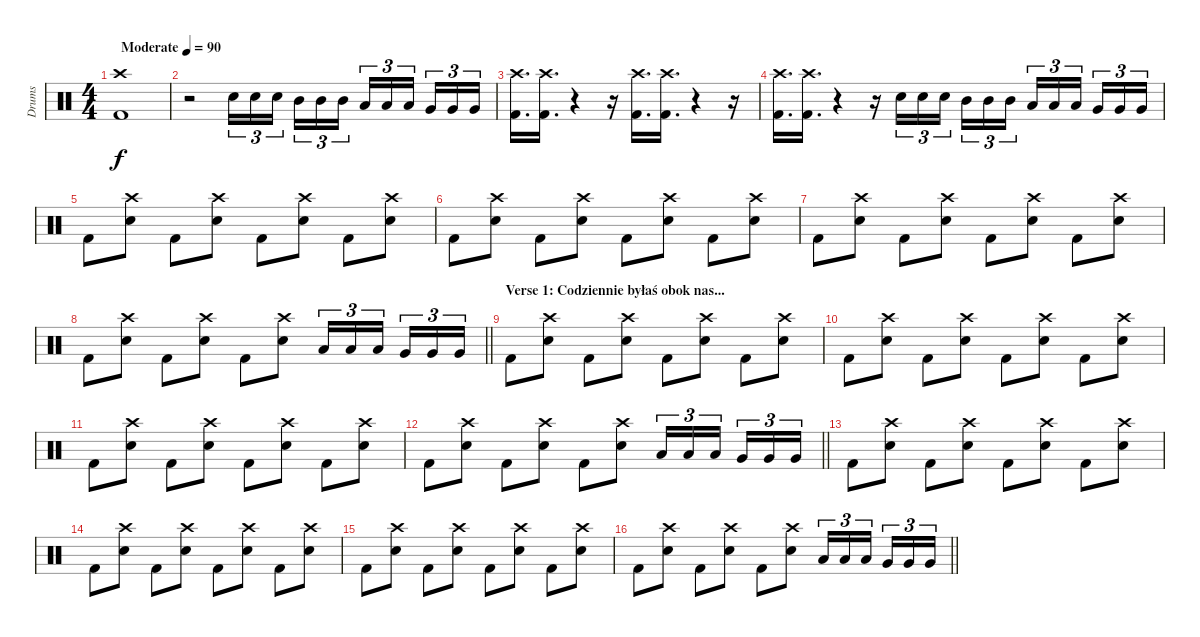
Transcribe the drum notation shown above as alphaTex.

\track ("Drums" "Drums") {instrument percussion}
\staff {score}
\articulation defaults
\ts (4 4)
\tempo (90 "Moderate")
\clef neutral
\ks c
("Crash high (hit)" "Kick (hit) 2").1{dy f} |
r.2 "Snare (hit) 2".16{tu (3 2)} "Snare (hit) 2".16{tu (3 2)} "Snare (hit) 2".16{tu (3 2) beam splitsecondary} "Mid Tom (hit)".16{tu (3 2)} "Mid Tom (hit)".16{tu (3 2)} "Mid Tom (hit)".16{tu (3 2)} "Low Tom (hit)".16{tu (3 2)} "Low Tom (hit)".16{tu (3 2)} "Low Tom (hit)".16{tu (3 2) beam splitsecondary} "Very Low Tom (hit)".16{tu (3 2)} "Very Low Tom (hit)".16{tu (3 2)} "Very Low Tom (hit)".16{tu (3 2)} |
("Crash high (hit)" "Kick (hit) 2").16{d} ("Crash high (hit)" "Kick (hit) 2").16{d} r.4 r.16 ("Crash high (hit)" "Kick (hit) 2").16{d} ("Crash high (hit)" "Kick (hit) 2").16{d} r.4 r.16 |
("Crash high (hit)" "Kick (hit) 2").16{d} ("Crash high (hit)" "Kick (hit) 2").16{d} r.4 r.16 "Snare (hit) 2".16{tu (3 2)} "Snare (hit) 2".16{tu (3 2)} "Snare (hit) 2".16{tu (3 2) beam splitsecondary} "Mid Tom (hit)".16{tu (3 2)} "Mid Tom (hit)".16{tu (3 2)} "Mid Tom (hit)".16{tu (3 2)} "Low Tom (hit)".16{tu (3 2)} "Low Tom (hit)".16{tu (3 2)} "Low Tom (hit)".16{tu (3 2) beam splitsecondary} "Very Low Tom (hit)".16{tu (3 2)} "Very Low Tom (hit)".16{tu (3 2)} "Very Low Tom (hit)".16{tu (3 2)} |
"Kick (hit) 2".8 ("Crash high (hit)" "Snare (hit) 2").8 "Kick (hit) 2".8 ("Crash high (hit)" "Snare (hit) 2").8 "Kick (hit) 2".8 ("Crash high (hit)" "Snare (hit) 2").8 "Kick (hit) 2".8 ("Crash high (hit)" "Snare (hit) 2").8 |
"Kick (hit) 2".8 ("Crash high (hit)" "Snare (hit) 2").8 "Kick (hit) 2".8 ("Crash high (hit)" "Snare (hit) 2").8 "Kick (hit) 2".8 ("Crash high (hit)" "Snare (hit) 2").8 "Kick (hit) 2".8 ("Crash high (hit)" "Snare (hit) 2").8 |
"Kick (hit) 2".8 ("Crash high (hit)" "Snare (hit) 2").8 "Kick (hit) 2".8 ("Crash high (hit)" "Snare (hit) 2").8 "Kick (hit) 2".8 ("Crash high (hit)" "Snare (hit) 2").8 "Kick (hit) 2".8 ("Crash high (hit)" "Snare (hit) 2").8 |
\barLineRight lightlight "Kick (hit) 2".8
("Crash high (hit)" "Snare (hit) 2").8 "Kick (hit) 2".8 ("Crash high (hit)" "Snare (hit) 2").8 "Kick (hit) 2".8 ("Crash high (hit)" "Snare (hit) 2").8 "Low Tom (hit)".16{tu (3 2)} "Low Tom (hit)".16{tu (3 2)} "Low Tom (hit)".16{tu (3 2) beam splitsecondary} "Very Low Tom (hit)".16{tu (3 2)} "Very Low Tom (hit)".16{tu (3 2)} "Very Low Tom (hit)".16{tu (3 2)} |
\section ("" "Verse 1: Codziennie byłaś obok nas...")
"Kick (hit) 2".8 ("Crash high (hit)" "Snare (hit) 2").8 "Kick (hit) 2".8 ("Crash high (hit)" "Snare (hit) 2").8 "Kick (hit) 2".8 ("Crash high (hit)" "Snare (hit) 2").8 "Kick (hit) 2".8 ("Crash high (hit)" "Snare (hit) 2").8 |
"Kick (hit) 2".8 ("Crash high (hit)" "Snare (hit) 2").8 "Kick (hit) 2".8 ("Crash high (hit)" "Snare (hit) 2").8 "Kick (hit) 2".8 ("Crash high (hit)" "Snare (hit) 2").8 "Kick (hit) 2".8 ("Crash high (hit)" "Snare (hit) 2").8 |
"Kick (hit) 2".8 ("Crash high (hit)" "Snare (hit) 2").8 "Kick (hit) 2".8 ("Crash high (hit)" "Snare (hit) 2").8 "Kick (hit) 2".8 ("Crash high (hit)" "Snare (hit) 2").8 "Kick (hit) 2".8 ("Crash high (hit)" "Snare (hit) 2").8 |
\barLineRight lightlight "Kick (hit) 2".8
("Crash high (hit)" "Snare (hit) 2").8 "Kick (hit) 2".8 ("Crash high (hit)" "Snare (hit) 2").8 "Kick (hit) 2".8 ("Crash high (hit)" "Snare (hit) 2").8 "Low Tom (hit)".16{tu (3 2)} "Low Tom (hit)".16{tu (3 2)} "Low Tom (hit)".16{tu (3 2) beam splitsecondary} "Very Low Tom (hit)".16{tu (3 2)} "Very Low Tom (hit)".16{tu (3 2)} "Very Low Tom (hit)".16{tu (3 2)} |
"Kick (hit) 2".8 ("Crash high (hit)" "Snare (hit) 2").8 "Kick (hit) 2".8 ("Crash high (hit)" "Snare (hit) 2").8 "Kick (hit) 2".8 ("Crash high (hit)" "Snare (hit) 2").8 "Kick (hit) 2".8 ("Crash high (hit)" "Snare (hit) 2").8 |
"Kick (hit) 2".8 ("Crash high (hit)" "Snare (hit) 2").8 "Kick (hit) 2".8 ("Crash high (hit)" "Snare (hit) 2").8 "Kick (hit) 2".8 ("Crash high (hit)" "Snare (hit) 2").8 "Kick (hit) 2".8 ("Crash high (hit)" "Snare (hit) 2").8 |
"Kick (hit) 2".8 ("Crash high (hit)" "Snare (hit) 2").8 "Kick (hit) 2".8 ("Crash high (hit)" "Snare (hit) 2").8 "Kick (hit) 2".8 ("Crash high (hit)" "Snare (hit) 2").8 "Kick (hit) 2".8 ("Crash high (hit)" "Snare (hit) 2").8 |
\barLineRight lightlight "Kick (hit) 2".8
("Crash high (hit)" "Snare (hit) 2").8 "Kick (hit) 2".8 ("Crash high (hit)" "Snare (hit) 2").8 "Kick (hit) 2".8 ("Crash high (hit)" "Snare (hit) 2").8 "Low Tom (hit)".16{tu (3 2)} "Low Tom (hit)".16{tu (3 2)} "Low Tom (hit)".16{tu (3 2) beam splitsecondary} "Very Low Tom (hit)".16{tu (3 2)} "Very Low Tom (hit)".16{tu (3 2)} "Very Low Tom (hit)".16{tu (3 2)}
